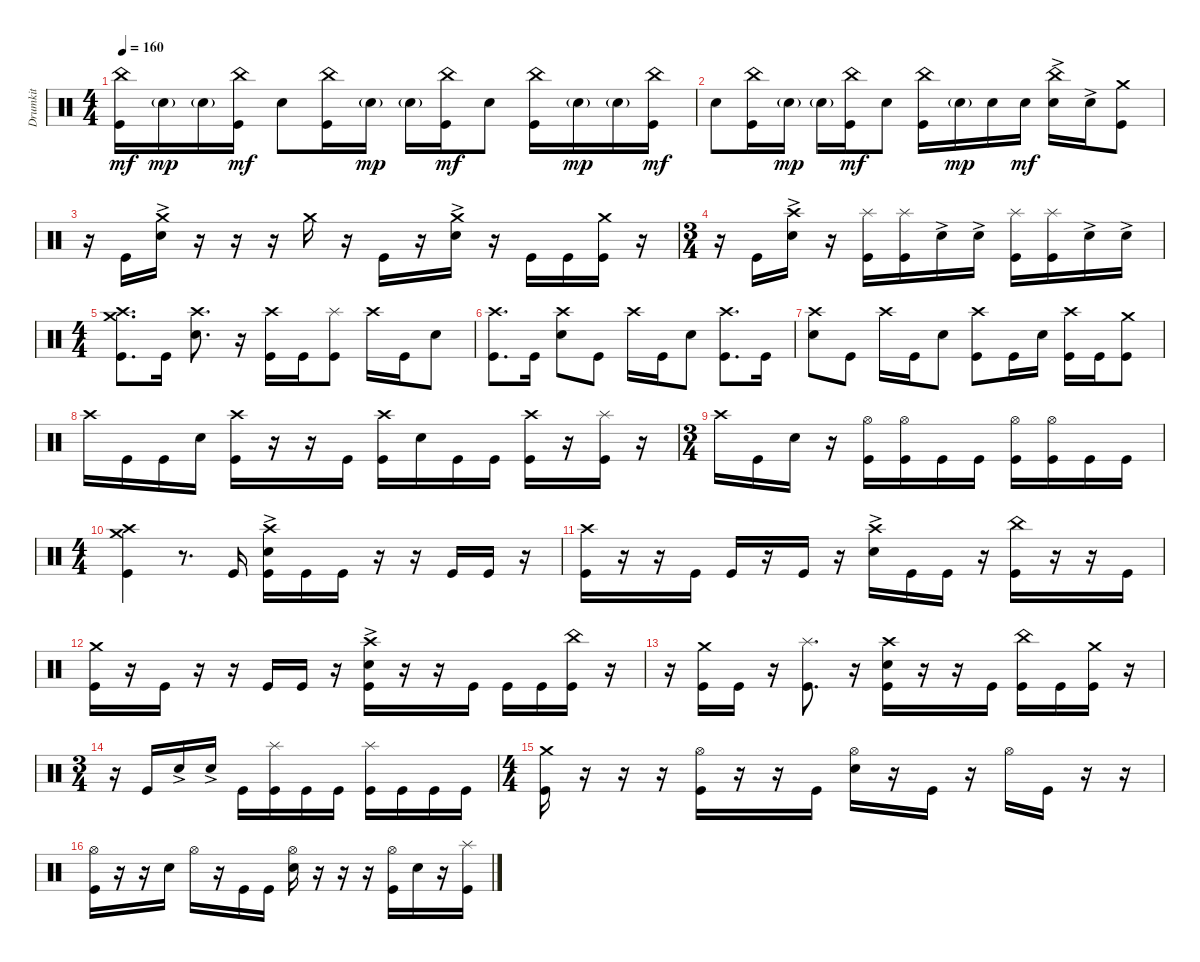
\track ("Drumkit" "Drumkit") {instrument percussion}
\staff {score}
\articulation defaults
\ts (4 4)
\tempo 160
\clef neutral
\ks c
("Kick (hit)" "China (hit)").16{dy mf} "Snare (hit) 2"{g}.16{dy mp} "Snare (hit) 2"{g}.16 ("Kick (hit)" "China (hit)").16{dy mf} "Snare (hit) 2".8 ("Kick (hit)" "China (hit)").16 "Snare (hit) 2"{g}.16{dy mp} "Snare (hit) 2"{g}.16 ("Kick (hit)" "China (hit)").16{dy mf} "Snare (hit) 2".8 ("Kick (hit)" "China (hit)").16 "Snare (hit) 2"{g}.16{dy mp} "Snare (hit) 2"{g}.16 ("Kick (hit)" "China (hit)").16{dy mf} |
"Snare (hit) 2".8 ("Kick (hit)" "China (hit)").16 "Snare (hit) 2"{g}.16{dy mp} "Snare (hit) 2"{g}.16 ("Kick (hit)" "China (hit)").16{dy mf} "Snare (hit) 2".8 ("Kick (hit)" "China (hit)").16 "Snare (hit) 2"{g}.16{dy mp} "Snare (hit) 2".16 "Snare (hit) 2".16{dy mf} ("China (hit)" "Snare (hit) 2"{ac}).16 "Snare (hit) 2"{ac}.16 ("Kick (hit)" "Crash medium (hit)").8 |
r.16 "Kick (hit)".16 ("Snare (hit) 2"{ac} "Crash medium (hit)").16 r.16 r.16 r.16 "Crash medium (hit)".16 r.16 "Kick (hit)".16 r.16 ("Snare (hit) 2"{ac} "Crash medium (hit)").16 r.16 "Kick (hit)".16 "Kick (hit)".16 ("Crash medium (hit)" "Kick (hit)").16 r.16 |
\ts (3 4)
r.16 "Kick (hit)".16 ("Snare (hit) 2"{ac} "Crash high (hit)").16 r.16 ("Kick (hit)" "Splash (hit)").16 ("Kick (hit)" "Splash (hit)").16 "Snare (hit) 2"{ac}.16 "Snare (hit) 2"{ac}.16 ("Splash (hit)" "Kick (hit)").16 ("Splash (hit)" "Kick (hit)").16 "Snare (hit) 2"{ac}.16 "Snare (hit) 2"{ac}.16 |
\ts (4 4)
("Kick (hit)" "Crash high (hit)" "Crash medium (hit)").8{d} "Kick (hit)".16 ("Snare (hit) 2" "Crash high (hit)").8{d} r.16 ("Kick (hit)" "Crash high (hit)").16 "Kick (hit)".16 ("Kick (hit)" "Splash (hit)").8 "Crash high (hit)".16 "Kick (hit)".16 "Snare (hit) 2".8 |
("Kick (hit)" "Crash high (hit)").8{d} "Kick (hit)".16 ("Snare (hit) 2" "Crash high (hit)").8 "Kick (hit)".8 "Crash high (hit)".16 "Kick (hit)".16 "Snare (hit) 2".8 ("Kick (hit)" "Crash high (hit)").8{d} "Kick (hit)".16 |
("Snare (hit) 2" "Crash high (hit)").8 "Kick (hit)".8 "Crash high (hit)".16 "Kick (hit)".16 "Snare (hit) 2".8 ("Kick (hit)" "Crash high (hit)").8 "Kick (hit)".16 "Snare (hit) 2".16 ("Kick (hit)" "Crash high (hit)").16 "Kick (hit)".16 ("Kick (hit)" "Crash medium (hit)").8 |
"Crash high (hit)".16 "Kick (hit)".16 "Kick (hit)".16 "Snare (hit) 2".16 ("Kick (hit)" "Crash high (hit)").16 r.16 r.16 "Kick (hit)".16 ("Kick (hit)" "Crash high (hit)").16 "Snare (hit) 2".16 "Kick (hit)".16 "Kick (hit)".16 ("Kick (hit)" "Crash high (hit)").16 r.16 ("Kick (hit)" "Splash (hit)").16 r.16 |
\ts (3 4)
"Crash high (hit)".16 "Kick (hit)".16 "Snare (hit) 2".16 r.16 ("Kick (hit)" "Hi-Hat (open)").16 ("Kick (hit)" "Hi-Hat (open)").16 "Kick (hit)".16 "Kick (hit)".16 ("Kick (hit)" "Hi-Hat (open)").16 ("Kick (hit)" "Hi-Hat (open)").16 "Kick (hit)".16 "Kick (hit)".16 |
\ts (4 4)
("Crash high (hit)" "Kick (hit)" "Crash medium (hit)").4 r.8{d} "Kick (hit)".16 ("Crash high (hit)" "Kick (hit)" "Snare (hit) 2"{ac}).16 "Kick (hit)".16 "Kick (hit)".16 r.16 r.16 "Kick (hit)".16 "Kick (hit)".16 r.16 |
("Kick (hit)" "Crash high (hit)").16 r.16 r.16 "Kick (hit)".16 "Kick (hit)".16 r.16 "Kick (hit)".16 r.16 ("Crash high (hit)" "Snare (hit) 2"{ac}).16 "Kick (hit)".16 "Kick (hit)".16 r.16 ("Kick (hit)" "China (hit)").16 r.16 r.16 "Kick (hit)".16 |
("Kick (hit)" "Crash medium (hit)").16 r.16 "Kick (hit)".16 r.16 r.16 "Kick (hit)".16 "Kick (hit)".16 r.16 ("Kick (hit)" "Crash high (hit)" "Snare (hit) 2"{ac}).16 r.16 r.16 "Kick (hit)".16 "Kick (hit)".16 "Kick (hit)".16 ("Kick (hit)" "China (hit)").16 r.16 |
r.16 ("Kick (hit)" "Crash medium (hit)").16 "Kick (hit)".16 r.16 ("Splash (hit)" "Kick (hit)").8{d} r.16 ("Crash high (hit)" "Kick (hit)" "Snare (hit) 2").16 r.16 r.16 "Kick (hit)".16 ("Kick (hit)" "China (hit)").16 "Kick (hit)".16 ("Kick (hit)" "Crash medium (hit)").16 r.16 |
\ts (3 4)
r.16 "Kick (hit)".16 "Snare (hit) 2"{ac}.16 "Snare (hit) 2"{ac}.16 "Kick (hit)".16 ("Kick (hit)" "Splash (hit)").16 "Kick (hit)".16 "Kick (hit)".16 ("Kick (hit)" "Splash (hit)").16 "Kick (hit)".16 "Kick (hit)".16 "Kick (hit)".16 |
\ts (4 4)
("Crash medium (hit)" "Kick (hit)").16 r.16 r.16 r.16 ("Hi-Hat (open)" "Kick (hit)").16 r.16 r.16 "Kick (hit)".16 ("Hi-Hat (open)" "Snare (hit) 2").16 r.16 "Kick (hit)".16 r.16 "Hi-Hat (open)".16 "Kick (hit)".16 r.16 r.16 |
("Hi-Hat (open)" "Kick (hit)").16 r.16 r.16 "Snare (hit) 2".16 "Hi-Hat (open)".16 r.16 "Kick (hit)".16 "Kick (hit)".16 ("Hi-Hat (open)" "Snare (hit) 2").16 r.16 r.16 r.16 ("Hi-Hat (open)" "Kick (hit)").16 "Snare (hit) 2".16 r.16 ("Splash (hit)" "Kick (hit)").16
